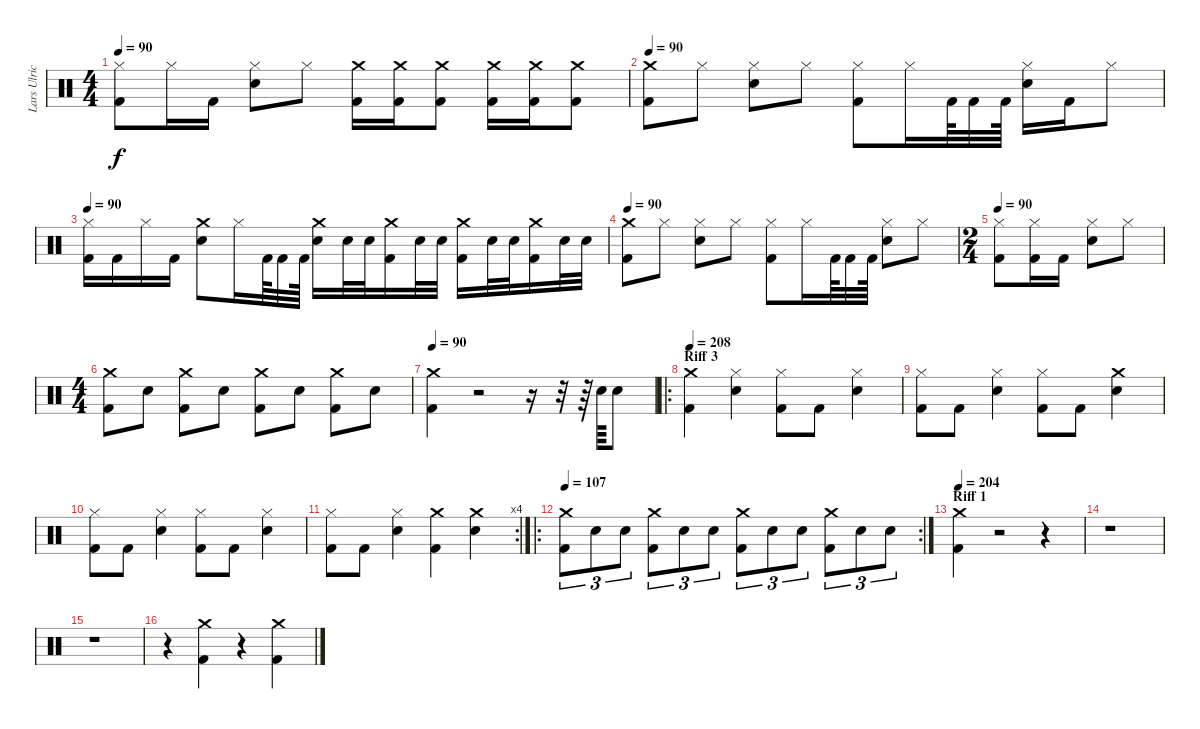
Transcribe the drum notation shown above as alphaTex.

\track ("Lars Ulrich (Drums)" "Lars Ulric") {instrument percussion}
\staff {score}
\articulation defaults
\ts (4 4)
\tempo 90
\clef neutral
\ks c
("Hi-Hat (closed)" "Kick (hit) 2").8{dy f} "Hi-Hat (closed)".16 "Kick (hit) 2".16 ("Snare (hit) 2" "Hi-Hat (closed)").8 "Hi-Hat (closed)".8 ("Kick (hit) 2" "Crash medium (hit)").16 ("Kick (hit) 2" "Crash medium (hit)").16 ("Kick (hit) 2" "Crash medium (hit)").8 ("Kick (hit) 2" "Crash medium (hit)").16 ("Kick (hit) 2" "Crash medium (hit)").16 ("Kick (hit) 2" "Crash medium (hit)").8 |
\tempo 90
("Crash medium (hit)" "Kick (hit) 2").8 "Hi-Hat (closed)".8 ("Snare (hit) 2" "Hi-Hat (closed)").8 "Hi-Hat (closed)".8 ("Hi-Hat (closed)" "Kick (hit) 2").8 "Hi-Hat (closed)".16 "Kick (hit) 2".64 "Kick (hit) 2".32 "Kick (hit) 2".64 ("Snare (hit) 2" "Hi-Hat (closed)").16 "Kick (hit) 2".16 "Hi-Hat (closed)".8 |
\tempo 90
("Hi-Hat (closed)" "Kick (hit) 2").16 "Kick (hit) 2".16 "Hi-Hat (closed)".16 "Kick (hit) 2".16 ("Crash medium (hit)" "Snare (hit) 2").8 "Hi-Hat (closed)".16 "Kick (hit) 2".64 "Kick (hit) 2".32 "Kick (hit) 2".64 ("Snare (hit) 2" "Crash medium (hit)").16 "Snare (hit) 2".32 "Snare (hit) 2".32 ("Crash medium (hit)" "Kick (hit) 2").16 "Snare (hit) 2".32 "Snare (hit) 2".32 ("Crash medium (hit)" "Kick (hit) 2").16 "Snare (hit) 2".32 "Snare (hit) 2".32 ("Crash medium (hit)" "Kick (hit) 2").16 "Snare (hit) 2".32 "Snare (hit) 2".32 |
\tempo 90
("Kick (hit) 2" "Crash medium (hit)").8 "Hi-Hat (closed)".8 ("Snare (hit) 2" "Hi-Hat (closed)").8 "Hi-Hat (closed)".8 ("Hi-Hat (closed)" "Kick (hit) 2").8 "Hi-Hat (closed)".16 "Kick (hit) 2".64 "Kick (hit) 2".32 "Kick (hit) 2".64 ("Hi-Hat (closed)" "Snare (hit) 2").8 "Hi-Hat (closed)".8 |
\ts (2 4)
\tempo 90
("Kick (hit) 2" "Hi-Hat (closed)").8 ("Kick (hit) 2" "Hi-Hat (closed)").16 "Kick (hit) 2".16 ("Snare (hit) 2" "Hi-Hat (closed)").8 "Hi-Hat (closed)".8 |
\ts (4 4)
("Kick (hit) 2" "Crash medium (hit)").8 "Snare (hit) 2".8 ("Kick (hit) 2" "Crash medium (hit)").8 "Snare (hit) 2".8 ("Kick (hit) 2" "Crash medium (hit)").8 "Snare (hit) 2".8 ("Kick (hit) 2" "Crash medium (hit)").8 "Snare (hit) 2".8 |
\tempo 90
("Kick (hit) 2" "Crash medium (hit)").4 r.2 r.16 r.32 r.64 "Snare (hit) 2".64 "Snare (hit) 2".8 |
\ro
\section ("" "Riff 3")
\tempo 208
("Kick (hit) 2" "Crash medium (hit)").4 ("Hi-Hat (closed)" "Snare (hit) 2").4 ("Hi-Hat (closed)" "Kick (hit) 2").8 "Kick (hit) 2".8 ("Snare (hit) 2" "Hi-Hat (closed)").4 |
("Hi-Hat (closed)" "Kick (hit) 2").8 "Kick (hit) 2".8 ("Snare (hit) 2" "Hi-Hat (closed)").4 ("Hi-Hat (closed)" "Kick (hit) 2").8 "Kick (hit) 2".8 ("Crash medium (hit)" "Snare (hit) 2").4 |
("Hi-Hat (closed)" "Kick (hit) 2").8 "Kick (hit) 2".8 ("Snare (hit) 2" "Hi-Hat (closed)").4 ("Hi-Hat (closed)" "Kick (hit) 2").8 "Kick (hit) 2".8 ("Snare (hit) 2" "Hi-Hat (closed)").4 |
\rc 4
("Hi-Hat (closed)" "Kick (hit) 2").8 "Kick (hit) 2".8 ("Snare (hit) 2" "Hi-Hat (closed)").4 ("Crash medium (hit)" "Kick (hit) 2").4 ("Crash medium (hit)" "Snare (hit) 2").4 |
\ro
\rc 2
\tempo 107
("Kick (hit) 2" "Crash medium (hit)").8{tu (3 2)} "Snare (hit) 2".8{tu (3 2)} "Snare (hit) 2".8{tu (3 2)} ("Kick (hit) 2" "Crash medium (hit)").8{tu (3 2)} "Snare (hit) 2".8{tu (3 2)} "Snare (hit) 2".8{tu (3 2)} ("Kick (hit) 2" "Crash medium (hit)").8{tu (3 2)} "Snare (hit) 2".8{tu (3 2)} "Snare (hit) 2".8{tu (3 2)} ("Kick (hit) 2" "Crash medium (hit)").8{tu (3 2)} "Snare (hit) 2".8{tu (3 2)} "Snare (hit) 2".8{tu (3 2)} |
\section ("" "Riff 1")
\tempo 204
("Kick (hit) 2" "Crash medium (hit)").4 r.2 r.4 |
r.1 |
r.1 |
r.4 ("Kick (hit) 2" "Crash medium (hit)").4 r.4 ("Kick (hit) 2" "Crash medium (hit)").4
